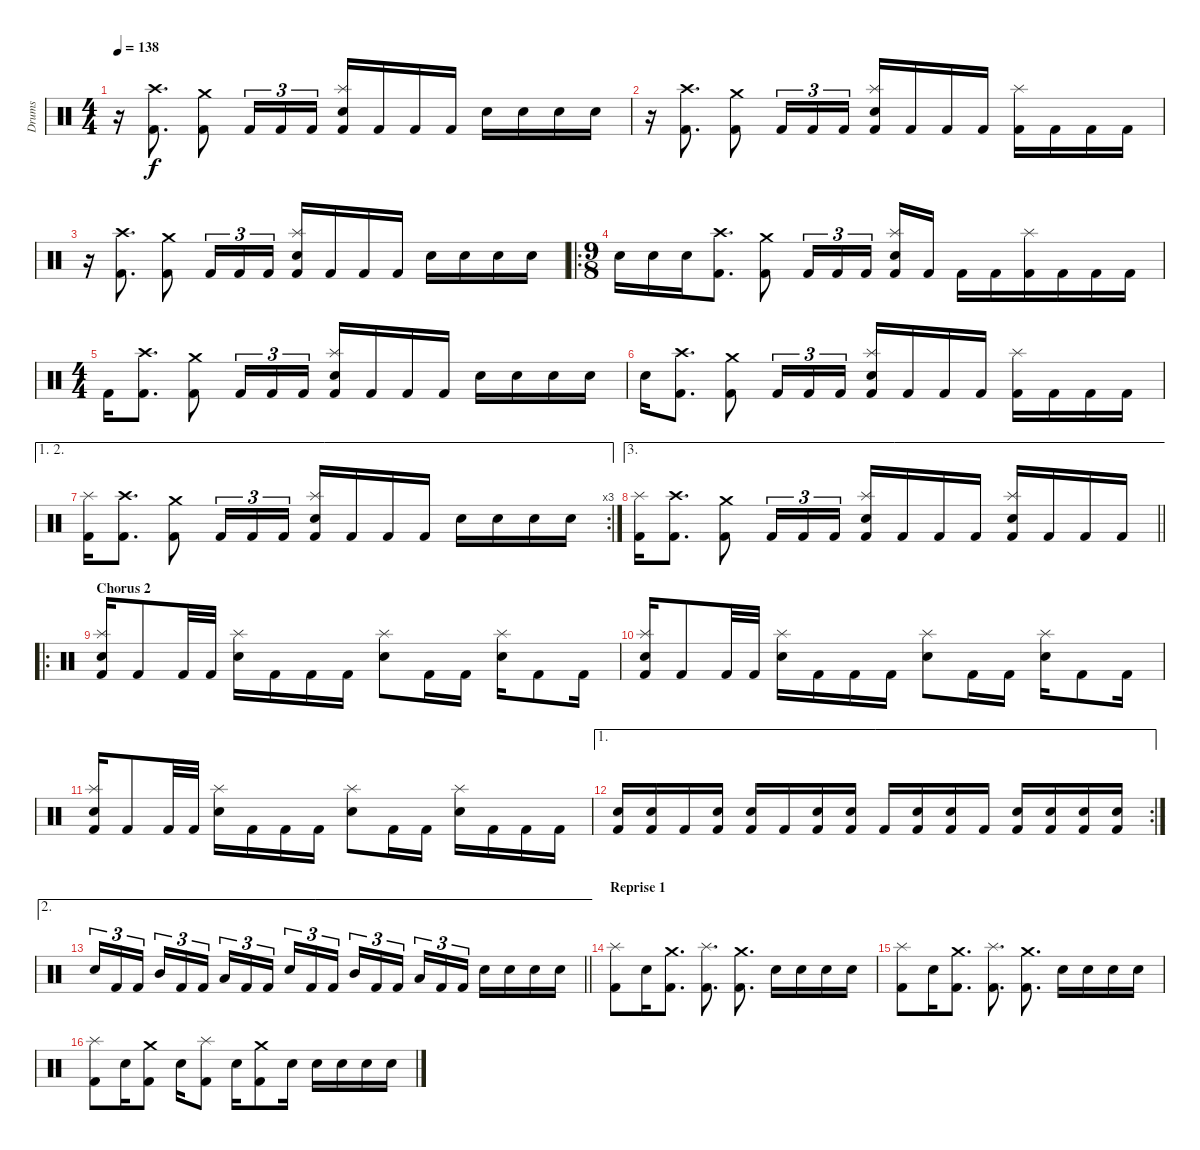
\track ("Drums" "Drums") {instrument percussion}
\staff {score}
\articulation defaults
\ts (4 4)
\tempo 138
\clef neutral
\ks c
r.16{dy f} ("Crash high (hit)" "Kick (hit) 2").8{d} ("Crash medium (hit)" "Kick (hit) 2").8 "Kick (hit) 2".16{tu (3 2)} "Kick (hit) 2".16{tu (3 2)} "Kick (hit) 2".16{tu (3 2)} ("Splash (hit)" "Snare (hit) 2" "Kick (hit) 2").16 "Kick (hit) 2".16 "Kick (hit) 2".16 "Kick (hit) 2".16 "Snare (hit) 2".16 "Snare (hit) 2".16 "Snare (hit) 2".16 "Snare (hit) 2".16 |
r.16 ("Crash high (hit)" "Kick (hit) 2").8{d} ("Crash medium (hit)" "Kick (hit) 2").8 "Kick (hit) 2".16{tu (3 2)} "Kick (hit) 2".16{tu (3 2)} "Kick (hit) 2".16{tu (3 2)} ("Splash (hit)" "Snare (hit) 2" "Kick (hit) 2").16 "Kick (hit) 2".16 "Kick (hit) 2".16 "Kick (hit) 2".16 ("Splash (hit)" "Kick (hit) 2").16 "Kick (hit) 2".16 "Kick (hit) 2".16 "Kick (hit) 2".16 |
r.16 ("Crash high (hit)" "Kick (hit) 2").8{d} ("Crash medium (hit)" "Kick (hit) 2").8 "Kick (hit) 2".16{tu (3 2)} "Kick (hit) 2".16{tu (3 2)} "Kick (hit) 2".16{tu (3 2)} ("Splash (hit)" "Snare (hit) 2" "Kick (hit) 2").16 "Kick (hit) 2".16 "Kick (hit) 2".16 "Kick (hit) 2".16 "Snare (hit) 2".16 "Snare (hit) 2".16 "Snare (hit) 2".16 "Snare (hit) 2".16 |
\ro
\ts (9 8)
"Snare (hit) 2".16 "Snare (hit) 2".16 "Snare (hit) 2".16 ("Crash high (hit)" "Kick (hit) 2").8{d} ("Crash medium (hit)" "Kick (hit) 2").8 "Kick (hit) 2".16{tu (3 2)} "Kick (hit) 2".16{tu (3 2)} "Kick (hit) 2".16{tu (3 2) beam splitsecondary} ("Splash (hit)" "Snare (hit) 2" "Kick (hit) 2").16 "Kick (hit) 2".16 "Kick (hit) 2".16 "Kick (hit) 2".16 ("Splash (hit)" "Kick (hit) 2").16 "Kick (hit) 2".16 "Kick (hit) 2".16 "Kick (hit) 2".16 |
\ts (4 4)
"Kick (hit) 2".16 ("Crash high (hit)" "Kick (hit) 2").8{d} ("Crash medium (hit)" "Kick (hit) 2").8 "Kick (hit) 2".16{tu (3 2)} "Kick (hit) 2".16{tu (3 2)} "Kick (hit) 2".16{tu (3 2)} ("Splash (hit)" "Snare (hit) 2" "Kick (hit) 2").16 "Kick (hit) 2".16 "Kick (hit) 2".16 "Kick (hit) 2".16 "Snare (hit) 2".16 "Snare (hit) 2".16 "Snare (hit) 2".16 "Snare (hit) 2".16 |
"Snare (hit) 2".16 ("Crash high (hit)" "Kick (hit) 2").8{d} ("Crash medium (hit)" "Kick (hit) 2").8 "Kick (hit) 2".16{tu (3 2)} "Kick (hit) 2".16{tu (3 2)} "Kick (hit) 2".16{tu (3 2)} ("Splash (hit)" "Snare (hit) 2" "Kick (hit) 2").16 "Kick (hit) 2".16 "Kick (hit) 2".16 "Kick (hit) 2".16 ("Splash (hit)" "Kick (hit) 2").16 "Kick (hit) 2".16 "Kick (hit) 2".16 "Kick (hit) 2".16 |
\ae (1 2)
\rc 3
("Splash (hit)" "Kick (hit) 2").16 ("Crash high (hit)" "Kick (hit) 2").8{d} ("Crash medium (hit)" "Kick (hit) 2").8 "Kick (hit) 2".16{tu (3 2)} "Kick (hit) 2".16{tu (3 2)} "Kick (hit) 2".16{tu (3 2)} ("Splash (hit)" "Snare (hit) 2" "Kick (hit) 2").16 "Kick (hit) 2".16 "Kick (hit) 2".16 "Kick (hit) 2".16 "Snare (hit) 2".16 "Snare (hit) 2".16 "Snare (hit) 2".16 "Snare (hit) 2".16 |
\ae 3
\barLineRight lightlight
("Splash (hit)" "Kick (hit) 2").16 ("Crash high (hit)" "Kick (hit) 2").8{d} ("Crash medium (hit)" "Kick (hit) 2").8 "Kick (hit) 2".16{tu (3 2)} "Kick (hit) 2".16{tu (3 2)} "Kick (hit) 2".16{tu (3 2)} ("Splash (hit)" "Snare (hit) 2" "Kick (hit) 2").16 "Kick (hit) 2".16 "Kick (hit) 2".16 "Kick (hit) 2".16 ("Splash (hit)" "Snare (hit) 2" "Kick (hit) 2").16 "Kick (hit) 2".16 "Kick (hit) 2".16 "Kick (hit) 2".16 |
\ro
\section ("" "Chorus 2")
("Splash (hit)" "Snare (hit) 2" "Kick (hit) 2").16 "Kick (hit) 2".8 "Kick (hit) 2".32 "Kick (hit) 2".32 ("Splash (hit)" "Snare (hit) 2").16 "Kick (hit) 2".16 "Kick (hit) 2".16 "Kick (hit) 2".16 ("Splash (hit)" "Snare (hit) 2").8 "Kick (hit) 2".16 "Kick (hit) 2".16 ("Splash (hit)" "Snare (hit) 2").16 "Kick (hit) 2".8 "Kick (hit) 2".16 |
("Splash (hit)" "Snare (hit) 2" "Kick (hit) 2").16 "Kick (hit) 2".8 "Kick (hit) 2".32 "Kick (hit) 2".32 ("Splash (hit)" "Snare (hit) 2").16 "Kick (hit) 2".16 "Kick (hit) 2".16 "Kick (hit) 2".16 ("Splash (hit)" "Snare (hit) 2").8 "Kick (hit) 2".16 "Kick (hit) 2".16 ("Splash (hit)" "Snare (hit) 2").16 "Kick (hit) 2".8 "Kick (hit) 2".16 |
("Splash (hit)" "Snare (hit) 2" "Kick (hit) 2").16 "Kick (hit) 2".8 "Kick (hit) 2".32 "Kick (hit) 2".32 ("Splash (hit)" "Snare (hit) 2").16 "Kick (hit) 2".16 "Kick (hit) 2".16 "Kick (hit) 2".16 ("Splash (hit)" "Snare (hit) 2").8 "Kick (hit) 2".16 "Kick (hit) 2".16 ("Splash (hit)" "Snare (hit) 2").16 "Kick (hit) 2".16 "Kick (hit) 2".16 "Kick (hit) 2".16 |
\ae 1
\rc 2
("Snare (hit) 2" "Kick (hit) 2").16 ("Snare (hit) 2" "Kick (hit) 2").16 "Kick (hit) 2".16 ("Snare (hit) 2" "Kick (hit) 2").16 ("Snare (hit) 2" "Kick (hit) 2").16 "Kick (hit) 2".16 ("Snare (hit) 2" "Kick (hit) 2").16 ("Snare (hit) 2" "Kick (hit) 2").16 "Kick (hit) 2".16 ("Snare (hit) 2" "Kick (hit) 2").16 ("Snare (hit) 2" "Kick (hit) 2").16 "Kick (hit) 2".16 ("Snare (hit) 2" "Kick (hit) 2").16 ("Snare (hit) 2" "Kick (hit) 2").16 ("Snare (hit) 2" "Kick (hit) 2").16 ("Snare (hit) 2" "Kick (hit) 2").16 |
\ae 2
\barLineRight lightlight "Snare (hit) 2".16{tu (3 2)} "Kick (hit) 2".16{tu (3 2)} "Kick (hit) 2".16{tu (3 2) beam splitsecondary} "Mid Tom (hit)".16{tu (3 2)} "Kick (hit) 2".16{tu (3 2)} "Kick (hit) 2".16{tu (3 2)} "Low Tom (hit)".16{tu (3 2)} "Kick (hit) 2".16{tu (3 2)} "Kick (hit) 2".16{tu (3 2) beam splitsecondary} "Snare (hit) 2".16{tu (3 2)} "Kick (hit) 2".16{tu (3 2)} "Kick (hit) 2".16{tu (3 2)} "Mid Tom (hit)".16{tu (3 2)} "Kick (hit) 2".16{tu (3 2)} "Kick (hit) 2".16{tu (3 2) beam splitsecondary} "Low Tom (hit)".16{tu (3 2)} "Kick (hit) 2".16{tu (3 2)} "Kick (hit) 2".16{tu (3 2)} "Snare (hit) 2".16 "Snare (hit) 2".16 "Snare (hit) 2".16 "Snare (hit) 2".16
|
\section ("" "Reprise 1")
("Splash (hit)" "Kick (hit) 2").8 "Snare (hit) 2".16 ("Crash medium (hit)" "Kick (hit) 2").8{d} ("Splash (hit)" "Kick (hit) 2").8{d} ("Crash medium (hit)" "Kick (hit) 2").8{d} "Snare (hit) 2".16 "Snare (hit) 2".16 "Snare (hit) 2".16 "Snare (hit) 2".16 |
("Splash (hit)" "Kick (hit) 2").8 "Snare (hit) 2".16 ("Crash medium (hit)" "Kick (hit) 2").8{d} ("Splash (hit)" "Kick (hit) 2").8{d} ("Crash medium (hit)" "Kick (hit) 2").8{d} "Snare (hit) 2".16 "Snare (hit) 2".16 "Snare (hit) 2".16 "Snare (hit) 2".16 |
("Splash (hit)" "Kick (hit) 2").8 "Snare (hit) 2".16 ("Crash medium (hit)" "Kick (hit) 2").8 "Snare (hit) 2".16 ("Splash (hit)" "Kick (hit) 2").8 "Snare (hit) 2".16 ("Crash medium (hit)" "Kick (hit) 2").8 "Snare (hit) 2".16 "Snare (hit) 2".16 "Snare (hit) 2".16 "Snare (hit) 2".16 "Snare (hit) 2".16
